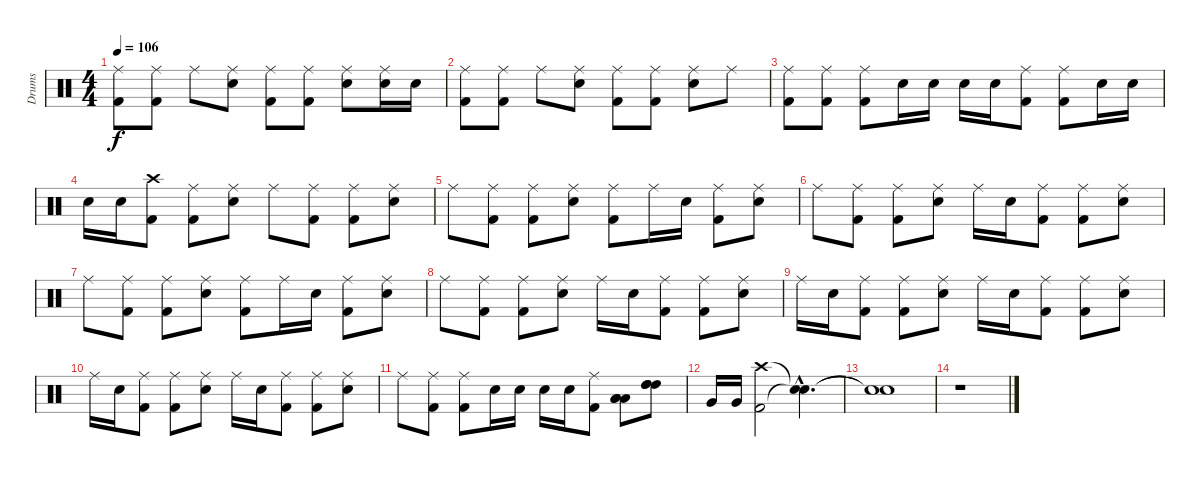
\track ("Drums" "Drums") {instrument percussion}
\staff {score}
\articulation defaults
\ts (4 4)
\tempo 106
\clef neutral
\ks c
("Ride (middle)" "Kick (hit) 2").8{dy f} ("Ride (middle)" "Kick (hit) 2").8 "Ride (middle)".8 ("Ride (middle)" "Snare (hit) 2").8 ("Ride (middle)" "Kick (hit) 2").8 ("Ride (middle)" "Kick (hit) 2").8 ("Ride (middle)" "Snare (hit) 2").8 ("Ride (middle)" "Snare (hit) 2").16 "Snare (hit) 2".16 |
("Ride (middle)" "Kick (hit) 2").8{volume 16} ("Ride (middle)" "Kick (hit) 2").8 "Ride (middle)".8 ("Ride (middle)" "Snare (hit) 2").8 ("Ride (middle)" "Kick (hit) 2").8 ("Ride (middle)" "Kick (hit) 2").8 ("Ride (middle)" "Snare (hit) 2").8 "Ride (middle)".8 |
("Ride (middle)" "Kick (hit) 2").8 ("Ride (middle)" "Kick (hit) 2").8 ("Ride (middle)" "Kick (hit) 2").8 "Snare (hit) 2".16 "Snare (hit) 2".16 "Snare (hit) 2".16 "Snare (hit) 2".16 ("Ride (middle)" "Kick (hit) 2").8 ("Ride (middle)" "Kick (hit) 2").8 "Snare (hit) 2".16 "Snare (hit) 2".16 |
"Snare (hit) 2".16 "Snare (hit) 2".16 ("Crash high (hit)" "Kick (hit) 2").8 ("Ride (middle)" "Kick (hit) 2").8 ("Ride (middle)" "Snare (hit) 2").8 "Ride (middle)".8 ("Ride (middle)" "Kick (hit) 2").8 ("Ride (middle)" "Kick (hit) 2").8 ("Ride (middle)" "Snare (hit) 2").8 |
"Ride (middle)".8 ("Ride (middle)" "Kick (hit) 2").8 ("Ride (middle)" "Kick (hit) 2").8 ("Ride (middle)" "Snare (hit) 2").8 ("Ride (middle)" "Kick (hit) 2").8 "Ride (middle)".16 "Snare (hit) 2".16 ("Ride (middle)" "Kick (hit) 2").8 ("Ride (middle)" "Snare (hit) 2").8 |
"Ride (middle)".8 ("Ride (middle)" "Kick (hit) 2").8 ("Ride (middle)" "Kick (hit) 2").8 ("Ride (middle)" "Snare (hit) 2").8 "Ride (middle)".16 "Snare (hit) 2".16 ("Ride (middle)" "Kick (hit) 2").8 ("Ride (middle)" "Kick (hit) 2").8 ("Ride (middle)" "Snare (hit) 2").8 |
"Ride (middle)".8 ("Ride (middle)" "Kick (hit) 2").8 ("Ride (middle)" "Kick (hit) 2").8 ("Ride (middle)" "Snare (hit) 2").8 ("Ride (middle)" "Kick (hit) 2").8 "Ride (middle)".16 "Snare (hit) 2".16 ("Ride (middle)" "Kick (hit) 2").8 ("Ride (middle)" "Snare (hit) 2").8 |
"Ride (middle)".8 ("Ride (middle)" "Kick (hit) 2").8 ("Ride (middle)" "Kick (hit) 2").8 ("Ride (middle)" "Snare (hit) 2").8 "Ride (middle)".16 "Snare (hit) 2".16 ("Ride (middle)" "Kick (hit) 2").8 ("Ride (middle)" "Kick (hit) 2").8 ("Ride (middle)" "Snare (hit) 2").8 |
"Ride (middle)".16 "Snare (hit) 2".16 ("Ride (middle)" "Kick (hit) 2").8 ("Ride (middle)" "Kick (hit) 2").8 ("Ride (middle)" "Snare (hit) 2").8 "Ride (middle)".16 "Snare (hit) 2".16 ("Ride (middle)" "Kick (hit) 2").8 ("Ride (middle)" "Kick (hit) 2").8 ("Ride (middle)" "Snare (hit) 2").8 |
"Ride (middle)".16 "Snare (hit) 2".16 ("Ride (middle)" "Kick (hit) 2").8 ("Ride (middle)" "Kick (hit) 2").8 ("Ride (middle)" "Snare (hit) 2").8 "Ride (middle)".16 "Snare (hit) 2".16 ("Ride (middle)" "Kick (hit) 2").8 ("Ride (middle)" "Kick (hit) 2").8 ("Ride (middle)" "Snare (hit) 2").8 |
"Ride (middle)".8 ("Ride (middle)" "Kick (hit) 2").8 ("Ride (middle)" "Kick (hit) 2").8 "Snare (hit) 2".16 "Snare (hit) 2".16 "Snare (hit) 2".16 "Snare (hit) 2".16 ("Ride (middle)" "Kick (hit) 2").8 ("Low Floor Tom (hit)" "Low Floor Tom (hit)" "Low Floor Tom (hit)").8 ("High Tom (hit)" "High Tom (hit)" "High Tom (hit)").8 |
"Very Low Tom (hit)".16 "Very Low Tom (hit)".16 ("Crash high (hit)" "Kick (hit) 2").2 ("Snare (hit)"{hac t} "Snare (hit)"{hac t}).4{d} |
("Snare (hit)"{t} "Snare (hit)"{t}).1 |
r.1
